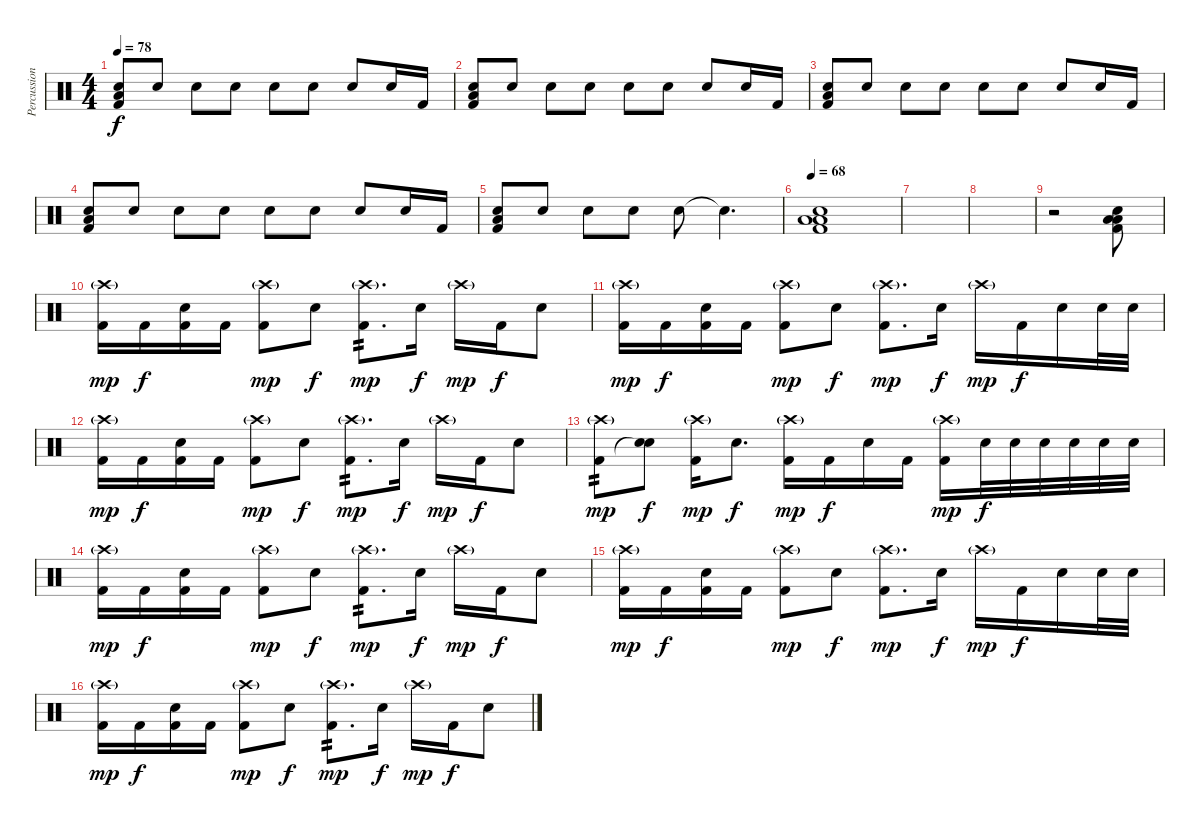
\track ("Percussions" "Percussion") {instrument percussion}
\staff {score}
\articulation defaults
\ts (4 4)
\tempo 78
\clef neutral
\ks c
("Snare (hit) 2" "Low Floor Tom (hit)" "Kick (hit) 2").8{dy f} "Snare (hit) 2".8 "Snare (hit) 2".8 "Snare (hit) 2".8 "Snare (hit) 2".8 "Snare (hit) 2".8 "Snare (hit) 2".8 "Snare (hit) 2".16 "Kick (hit) 2".16 |
("Snare (hit) 2" "Low Floor Tom (hit)" "Kick (hit) 2").8 "Snare (hit) 2".8 "Snare (hit) 2".8 "Snare (hit) 2".8 "Snare (hit) 2".8 "Snare (hit) 2".8 "Snare (hit) 2".8 "Snare (hit) 2".16 "Kick (hit) 2".16 |
("Snare (hit) 2" "Low Floor Tom (hit)" "Kick (hit) 2").8 "Snare (hit) 2".8 "Snare (hit) 2".8 "Snare (hit) 2".8 "Snare (hit) 2".8 "Snare (hit) 2".8 "Snare (hit) 2".8 "Snare (hit) 2".16 "Kick (hit) 2".16 |
("Snare (hit) 2" "Low Floor Tom (hit)" "Kick (hit) 2").8 "Snare (hit) 2".8 "Snare (hit) 2".8 "Snare (hit) 2".8 "Snare (hit) 2".8 "Snare (hit) 2".8 "Snare (hit) 2".8 "Snare (hit) 2".16 "Kick (hit) 2".16 |
("Snare (hit) 2" "Low Floor Tom (hit)" "Kick (hit) 2").8 "Snare (hit) 2".8 "Snare (hit) 2".8 "Snare (hit) 2".8 "Snare (hit) 2".8 "Snare (hit) 2"{t}.4{d} |
\tempo 68
("Electric Snare (hit)" "Low Floor Tom (hit)" "Low Floor Tom (hit)" "Kick (hit) 2").1 |
|
|
r.2 ("Electric Snare (hit)" "Low Floor Tom (hit)" "Low Floor Tom (hit)" "Kick (hit) 2").8 |
("Crash high (hit)"{g} "Kick (hit) 2").16{dy mp} "Kick (hit) 2".16{dy f} ("Snare (hit) 2" "Kick (hit) 2").16 "Kick (hit) 2".16 ("Crash high (hit)"{g} "Kick (hit) 2").8{dy mp} "Snare (hit) 2".8{dy f} ("Crash high (hit)"{g} "Kick (hit) 2").8{d tp 2 dy mp} "Snare (hit) 2".16{dy f} "Crash high (hit)"{g}.16{dy mp} "Kick (hit) 2".16{dy f} "Snare (hit) 2".8 |
("Crash high (hit)"{g} "Kick (hit) 2").16{dy mp} "Kick (hit) 2".16{dy f} ("Snare (hit) 2" "Kick (hit) 2").16 "Kick (hit) 2".16 ("Crash high (hit)"{g} "Kick (hit) 2").8{dy mp} "Snare (hit) 2".8{dy f} ("Crash high (hit)"{g} "Kick (hit) 2").8{d dy mp} "Snare (hit) 2".16{dy f} "Crash high (hit)"{g}.16{dy mp} "Kick (hit) 2".16{dy f} "Snare (hit) 2".16 "Snare (hit) 2".32 "Snare (hit) 2".32 |
("Crash high (hit)"{g} "Kick (hit) 2").16{dy mp} "Kick (hit) 2".16{dy f} ("Snare (hit) 2" "Kick (hit) 2").16 "Kick (hit) 2".16 ("Crash high (hit)"{g} "Kick (hit) 2").8{dy mp} "Snare (hit) 2".8{dy f} ("Crash high (hit)"{g} "Kick (hit) 2").8{d tp 2 dy mp} "Snare (hit) 2".16{dy f} "Crash high (hit)"{g}.16{dy mp} "Kick (hit) 2".16{dy f} "Snare (hit) 2".8 |
("Crash high (hit)"{g} "Kick (hit) 2").8{tp 2 dy mp} ("Snare (hit) 2" "Snare (hit)"{t}).8{dy f} ("Crash high (hit)"{g} "Kick (hit) 2").16{dy mp} "Snare (hit) 2".8{d dy f} ("Crash high (hit)"{g} "Kick (hit) 2").16{dy mp} "Kick (hit) 2".16{dy f} "Snare (hit) 2".16 "Kick (hit) 2".16 ("Crash high (hit)"{g} "Kick (hit) 2").16{dy mp} "Snare (hit) 2".32{dy f} "Snare (hit) 2".32 "Snare (hit) 2".32 "Snare (hit) 2".32 "Snare (hit) 2".32 "Snare (hit) 2".32 |
("Crash high (hit)"{g} "Kick (hit) 2").16{dy mp} "Kick (hit) 2".16{dy f} ("Snare (hit) 2" "Kick (hit) 2").16 "Kick (hit) 2".16 ("Crash high (hit)"{g} "Kick (hit) 2").8{dy mp} "Snare (hit) 2".8{dy f} ("Crash high (hit)"{g} "Kick (hit) 2").8{d tp 2 dy mp} "Snare (hit) 2".16{dy f} "Crash high (hit)"{g}.16{dy mp} "Kick (hit) 2".16{dy f} "Snare (hit) 2".8 |
("Crash high (hit)"{g} "Kick (hit) 2").16{dy mp} "Kick (hit) 2".16{dy f} ("Snare (hit) 2" "Kick (hit) 2").16 "Kick (hit) 2".16 ("Crash high (hit)"{g} "Kick (hit) 2").8{dy mp} "Snare (hit) 2".8{dy f} ("Crash high (hit)"{g} "Kick (hit) 2").8{d dy mp} "Snare (hit) 2".16{dy f} "Crash high (hit)"{g}.16{dy mp} "Kick (hit) 2".16{dy f} "Snare (hit) 2".16 "Snare (hit) 2".32 "Snare (hit) 2".32 |
("Crash high (hit)"{g} "Kick (hit) 2").16{dy mp} "Kick (hit) 2".16{dy f} ("Snare (hit) 2" "Kick (hit) 2").16 "Kick (hit) 2".16 ("Crash high (hit)"{g} "Kick (hit) 2").8{dy mp} "Snare (hit) 2".8{dy f} ("Crash high (hit)"{g} "Kick (hit) 2").8{d tp 2 dy mp} "Snare (hit) 2".16{dy f} "Crash high (hit)"{g}.16{dy mp} "Kick (hit) 2".16{dy f} "Snare (hit) 2".8
